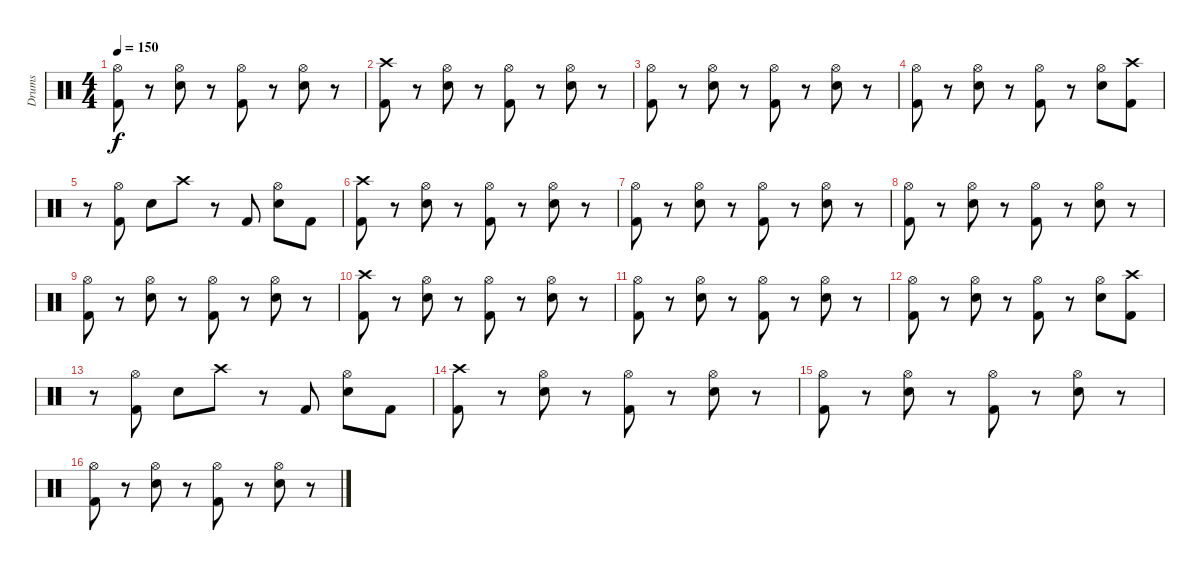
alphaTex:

\track ("Drums" "Drums") {instrument percussion}
\staff {score}
\articulation defaults
\ts (4 4)
\tempo 150
\clef neutral
\ks c
("Hi-Hat (open)" "Kick (hit) 2").8{dy f} r.8 ("Hi-Hat (open)" "Snare (hit) 2").8 r.8 ("Hi-Hat (open)" "Kick (hit) 2").8 r.8 ("Hi-Hat (open)" "Snare (hit) 2").8 r.8 |
("Crash high (hit)" "Kick (hit) 2").8 r.8 ("Hi-Hat (open)" "Snare (hit) 2").8 r.8 ("Hi-Hat (open)" "Kick (hit) 2").8 r.8 ("Hi-Hat (open)" "Snare (hit) 2").8 r.8 |
("Hi-Hat (open)" "Kick (hit) 2").8 r.8 ("Hi-Hat (open)" "Snare (hit) 2").8 r.8 ("Hi-Hat (open)" "Kick (hit) 2").8 r.8 ("Hi-Hat (open)" "Snare (hit) 2").8 r.8 |
("Hi-Hat (open)" "Kick (hit) 2").8 r.8 ("Hi-Hat (open)" "Snare (hit) 2").8 r.8 ("Hi-Hat (open)" "Kick (hit) 2").8 r.8 ("Hi-Hat (open)" "Snare (hit) 2").8 ("Crash high (hit)" "Kick (hit) 2").8 |
r.8 ("Hi-Hat (open)" "Kick (hit) 2").8 "Snare (hit) 2".8 "Crash high (hit)".8 r.8 "Kick (hit) 2".8 ("Hi-Hat (open)" "Snare (hit) 2").8 "Kick (hit) 2".8 |
("Crash high (hit)" "Kick (hit) 2").8 r.8 ("Hi-Hat (open)" "Snare (hit) 2").8 r.8 ("Hi-Hat (open)" "Kick (hit) 2").8 r.8 ("Hi-Hat (open)" "Snare (hit) 2").8 r.8 |
("Hi-Hat (open)" "Kick (hit) 2").8 r.8 ("Hi-Hat (open)" "Snare (hit) 2").8 r.8 ("Hi-Hat (open)" "Kick (hit) 2").8 r.8 ("Hi-Hat (open)" "Snare (hit) 2").8 r.8 |
("Hi-Hat (open)" "Kick (hit) 2").8 r.8 ("Hi-Hat (open)" "Snare (hit) 2").8 r.8 ("Hi-Hat (open)" "Kick (hit) 2").8 r.8 ("Hi-Hat (open)" "Snare (hit) 2").8 r.8 |
("Hi-Hat (open)" "Kick (hit) 2").8 r.8 ("Hi-Hat (open)" "Snare (hit) 2").8 r.8 ("Hi-Hat (open)" "Kick (hit) 2").8 r.8 ("Hi-Hat (open)" "Snare (hit) 2").8 r.8 |
("Crash high (hit)" "Kick (hit) 2").8 r.8 ("Hi-Hat (open)" "Snare (hit) 2").8 r.8 ("Hi-Hat (open)" "Kick (hit) 2").8 r.8 ("Hi-Hat (open)" "Snare (hit) 2").8 r.8 |
("Hi-Hat (open)" "Kick (hit) 2").8 r.8 ("Hi-Hat (open)" "Snare (hit) 2").8 r.8 ("Hi-Hat (open)" "Kick (hit) 2").8 r.8 ("Hi-Hat (open)" "Snare (hit) 2").8 r.8 |
("Hi-Hat (open)" "Kick (hit) 2").8 r.8 ("Hi-Hat (open)" "Snare (hit) 2").8 r.8 ("Hi-Hat (open)" "Kick (hit) 2").8 r.8 ("Hi-Hat (open)" "Snare (hit) 2").8 ("Crash high (hit)" "Kick (hit) 2").8 |
r.8 ("Hi-Hat (open)" "Kick (hit) 2").8 "Snare (hit) 2".8 "Crash high (hit)".8 r.8 "Kick (hit) 2".8 ("Hi-Hat (open)" "Snare (hit) 2").8 "Kick (hit) 2".8 |
("Crash high (hit)" "Kick (hit) 2").8 r.8 ("Hi-Hat (open)" "Snare (hit) 2").8 r.8 ("Hi-Hat (open)" "Kick (hit) 2").8 r.8 ("Hi-Hat (open)" "Snare (hit) 2").8 r.8 |
("Hi-Hat (open)" "Kick (hit) 2").8 r.8 ("Hi-Hat (open)" "Snare (hit) 2").8 r.8 ("Hi-Hat (open)" "Kick (hit) 2").8 r.8 ("Hi-Hat (open)" "Snare (hit) 2").8 r.8 |
("Hi-Hat (open)" "Kick (hit) 2").8 r.8 ("Hi-Hat (open)" "Snare (hit) 2").8 r.8 ("Hi-Hat (open)" "Kick (hit) 2").8 r.8 ("Hi-Hat (open)" "Snare (hit) 2").8 r.8
